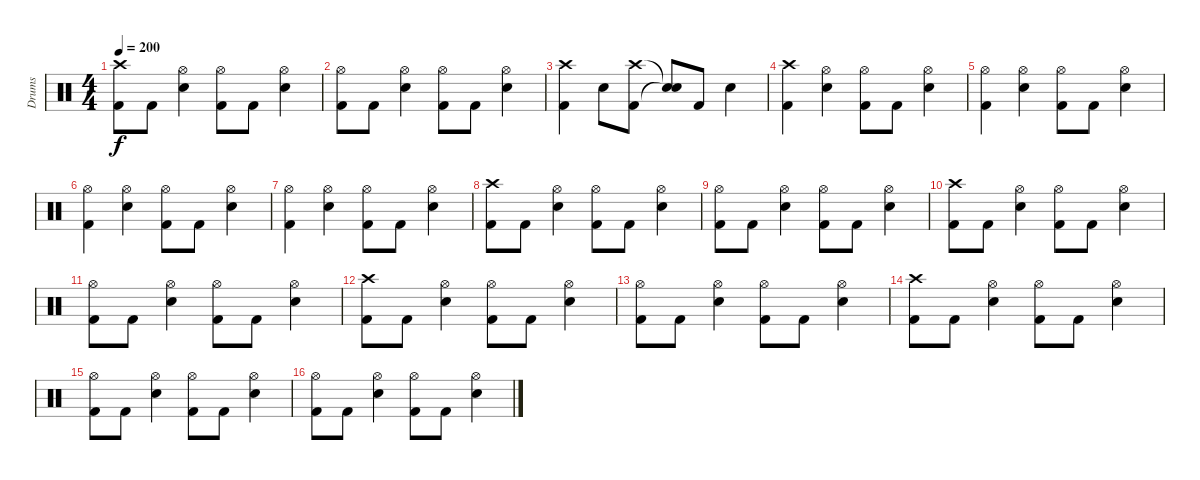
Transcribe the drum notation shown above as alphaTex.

\track ("Drums" "Drums") {instrument percussion}
\staff {score}
\articulation defaults
\ts (4 4)
\tempo 200
\clef neutral
\ks c
("Crash high (hit)" "Kick (hit) 2").8{dy f} "Kick (hit) 2".8 ("Hi-Hat (open)" "Electric Snare (hit)").4 ("Hi-Hat (open)" "Kick (hit) 2").8 "Kick (hit) 2".8 ("Hi-Hat (open)" "Electric Snare (hit)").4 |
("Hi-Hat (open)" "Kick (hit) 2").8 "Kick (hit) 2".8 ("Hi-Hat (open)" "Electric Snare (hit)").4 ("Hi-Hat (open)" "Kick (hit) 2").8 "Kick (hit) 2".8 ("Hi-Hat (open)" "Electric Snare (hit)").4 |
("Crash high (hit)" "Kick (hit) 2").4 "Electric Snare (hit)".8 ("Crash high (hit)" "Kick (hit) 2").8 ("Snare (hit)"{t} "Snare (hit)"{t}).8 "Kick (hit) 2".8 "Electric Snare (hit)".4 |
("Crash high (hit)" "Kick (hit) 2").4 ("Hi-Hat (open)" "Electric Snare (hit)").4 ("Hi-Hat (open)" "Kick (hit) 2").8 "Kick (hit) 2".8 ("Hi-Hat (open)" "Electric Snare (hit)").4 |
("Hi-Hat (open)" "Kick (hit) 2").4 ("Hi-Hat (open)" "Electric Snare (hit)").4 ("Hi-Hat (open)" "Kick (hit) 2").8 "Kick (hit) 2".8 ("Hi-Hat (open)" "Electric Snare (hit)").4 |
("Hi-Hat (open)" "Kick (hit) 2").4 ("Hi-Hat (open)" "Electric Snare (hit)").4 ("Hi-Hat (open)" "Kick (hit) 2").8 "Kick (hit) 2".8 ("Hi-Hat (open)" "Electric Snare (hit)").4 |
("Hi-Hat (open)" "Kick (hit) 2").4 ("Hi-Hat (open)" "Electric Snare (hit)").4 ("Hi-Hat (open)" "Kick (hit) 2").8 "Kick (hit) 2".8 ("Hi-Hat (open)" "Electric Snare (hit)").4 |
("Crash high (hit)" "Kick (hit) 2").8 "Kick (hit) 2".8 ("Hi-Hat (open)" "Electric Snare (hit)").4 ("Hi-Hat (open)" "Kick (hit) 2").8 "Kick (hit) 2".8 ("Hi-Hat (open)" "Electric Snare (hit)").4 |
("Hi-Hat (open)" "Kick (hit) 2").8 "Kick (hit) 2".8 ("Hi-Hat (open)" "Electric Snare (hit)").4 ("Hi-Hat (open)" "Kick (hit) 2").8 "Kick (hit) 2".8 ("Hi-Hat (open)" "Electric Snare (hit)").4 |
("Crash high (hit)" "Kick (hit) 2").8 "Kick (hit) 2".8 ("Hi-Hat (open)" "Electric Snare (hit)").4 ("Hi-Hat (open)" "Kick (hit) 2").8 "Kick (hit) 2".8 ("Hi-Hat (open)" "Electric Snare (hit)").4 |
("Hi-Hat (open)" "Kick (hit) 2").8 "Kick (hit) 2".8 ("Hi-Hat (open)" "Electric Snare (hit)").4 ("Hi-Hat (open)" "Kick (hit) 2").8 "Kick (hit) 2".8 ("Hi-Hat (open)" "Electric Snare (hit)").4 |
("Crash high (hit)" "Kick (hit) 2").8 "Kick (hit) 2".8 ("Hi-Hat (open)" "Electric Snare (hit)").4 ("Hi-Hat (open)" "Kick (hit) 2").8 "Kick (hit) 2".8 ("Hi-Hat (open)" "Electric Snare (hit)").4 |
("Hi-Hat (open)" "Kick (hit) 2").8 "Kick (hit) 2".8 ("Hi-Hat (open)" "Electric Snare (hit)").4 ("Hi-Hat (open)" "Kick (hit) 2").8 "Kick (hit) 2".8 ("Hi-Hat (open)" "Electric Snare (hit)").4 |
("Crash high (hit)" "Kick (hit) 2").8 "Kick (hit) 2".8 ("Hi-Hat (open)" "Electric Snare (hit)").4 ("Hi-Hat (open)" "Kick (hit) 2").8 "Kick (hit) 2".8 ("Hi-Hat (open)" "Electric Snare (hit)").4 |
("Hi-Hat (open)" "Kick (hit) 2").8 "Kick (hit) 2".8 ("Hi-Hat (open)" "Electric Snare (hit)").4 ("Hi-Hat (open)" "Kick (hit) 2").8 "Kick (hit) 2".8 ("Hi-Hat (open)" "Electric Snare (hit)").4 |
("Hi-Hat (open)" "Kick (hit) 2").8 "Kick (hit) 2".8 ("Hi-Hat (open)" "Electric Snare (hit)").4 ("Hi-Hat (open)" "Kick (hit) 2").8 "Kick (hit) 2".8 ("Hi-Hat (open)" "Electric Snare (hit)").4
